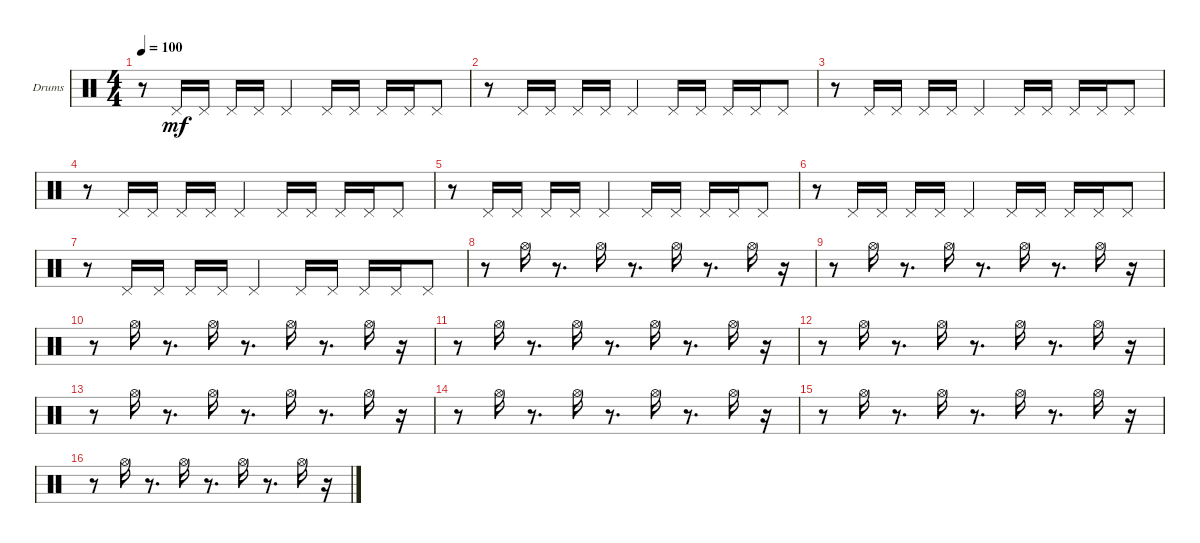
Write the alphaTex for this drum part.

\bracketExtendMode groupsimilarinstruments
\firstSystemTrackNameOrientation horizontal
\otherSystemsTrackNameOrientation horizontal
\track ("Treble Percussion" "Drums") {instrument percussion}
\staff {score}
\articulation defaults
\ts (4 4)
\tempo 100
\clef neutral
\ks c
r.8{dy mf} "Pedal Hi-Hat (hit)".16 "Pedal Hi-Hat (hit)".16 "Pedal Hi-Hat (hit)".16 "Pedal Hi-Hat (hit)".16 "Pedal Hi-Hat (hit)".4 "Pedal Hi-Hat (hit)".16 "Pedal Hi-Hat (hit)".16 "Pedal Hi-Hat (hit)".16 "Pedal Hi-Hat (hit)".16 "Pedal Hi-Hat (hit)".8 |
r.8 "Pedal Hi-Hat (hit)".16 "Pedal Hi-Hat (hit)".16 "Pedal Hi-Hat (hit)".16 "Pedal Hi-Hat (hit)".16 "Pedal Hi-Hat (hit)".4 "Pedal Hi-Hat (hit)".16 "Pedal Hi-Hat (hit)".16 "Pedal Hi-Hat (hit)".16 "Pedal Hi-Hat (hit)".16 "Pedal Hi-Hat (hit)".8 |
r.8 "Pedal Hi-Hat (hit)".16 "Pedal Hi-Hat (hit)".16 "Pedal Hi-Hat (hit)".16 "Pedal Hi-Hat (hit)".16 "Pedal Hi-Hat (hit)".4 "Pedal Hi-Hat (hit)".16 "Pedal Hi-Hat (hit)".16 "Pedal Hi-Hat (hit)".16 "Pedal Hi-Hat (hit)".16 "Pedal Hi-Hat (hit)".8 |
r.8 "Pedal Hi-Hat (hit)".16 "Pedal Hi-Hat (hit)".16 "Pedal Hi-Hat (hit)".16 "Pedal Hi-Hat (hit)".16 "Pedal Hi-Hat (hit)".4 "Pedal Hi-Hat (hit)".16 "Pedal Hi-Hat (hit)".16 "Pedal Hi-Hat (hit)".16 "Pedal Hi-Hat (hit)".16 "Pedal Hi-Hat (hit)".8 |
r.8 "Pedal Hi-Hat (hit)".16 "Pedal Hi-Hat (hit)".16 "Pedal Hi-Hat (hit)".16 "Pedal Hi-Hat (hit)".16 "Pedal Hi-Hat (hit)".4 "Pedal Hi-Hat (hit)".16 "Pedal Hi-Hat (hit)".16 "Pedal Hi-Hat (hit)".16 "Pedal Hi-Hat (hit)".16 "Pedal Hi-Hat (hit)".8 |
r.8 "Pedal Hi-Hat (hit)".16 "Pedal Hi-Hat (hit)".16 "Pedal Hi-Hat (hit)".16 "Pedal Hi-Hat (hit)".16 "Pedal Hi-Hat (hit)".4 "Pedal Hi-Hat (hit)".16 "Pedal Hi-Hat (hit)".16 "Pedal Hi-Hat (hit)".16 "Pedal Hi-Hat (hit)".16 "Pedal Hi-Hat (hit)".8 |
r.8 "Pedal Hi-Hat (hit)".16 "Pedal Hi-Hat (hit)".16 "Pedal Hi-Hat (hit)".16 "Pedal Hi-Hat (hit)".16 "Pedal Hi-Hat (hit)".4 "Pedal Hi-Hat (hit)".16 "Pedal Hi-Hat (hit)".16 "Pedal Hi-Hat (hit)".16 "Pedal Hi-Hat (hit)".16 "Pedal Hi-Hat (hit)".8 |
r.8 "Hi-Hat (open)".16 r.8{d} "Hi-Hat (open)".16 r.8{d} "Hi-Hat (open)".16 r.8{d} "Hi-Hat (open)".16 r.16 |
r.8 "Hi-Hat (open)".16 r.8{d} "Hi-Hat (open)".16 r.8{d} "Hi-Hat (open)".16 r.8{d} "Hi-Hat (open)".16 r.16 |
r.8 "Hi-Hat (open)".16 r.8{d} "Hi-Hat (open)".16 r.8{d} "Hi-Hat (open)".16 r.8{d} "Hi-Hat (open)".16 r.16 |
r.8 "Hi-Hat (open)".16 r.8{d} "Hi-Hat (open)".16 r.8{d} "Hi-Hat (open)".16 r.8{d} "Hi-Hat (open)".16 r.16 |
r.8 "Hi-Hat (open)".16 r.8{d} "Hi-Hat (open)".16 r.8{d} "Hi-Hat (open)".16 r.8{d} "Hi-Hat (open)".16 r.16 |
r.8 "Hi-Hat (open)".16 r.8{d} "Hi-Hat (open)".16 r.8{d} "Hi-Hat (open)".16 r.8{d} "Hi-Hat (open)".16 r.16 |
r.8 "Hi-Hat (open)".16 r.8{d} "Hi-Hat (open)".16 r.8{d} "Hi-Hat (open)".16 r.8{d} "Hi-Hat (open)".16 r.16 |
r.8 "Hi-Hat (open)".16 r.8{d} "Hi-Hat (open)".16 r.8{d} "Hi-Hat (open)".16 r.8{d} "Hi-Hat (open)".16 r.16 |
r.8 "Hi-Hat (open)".16 r.8{d} "Hi-Hat (open)".16 r.8{d} "Hi-Hat (open)".16 r.8{d} "Hi-Hat (open)".16 r.16
